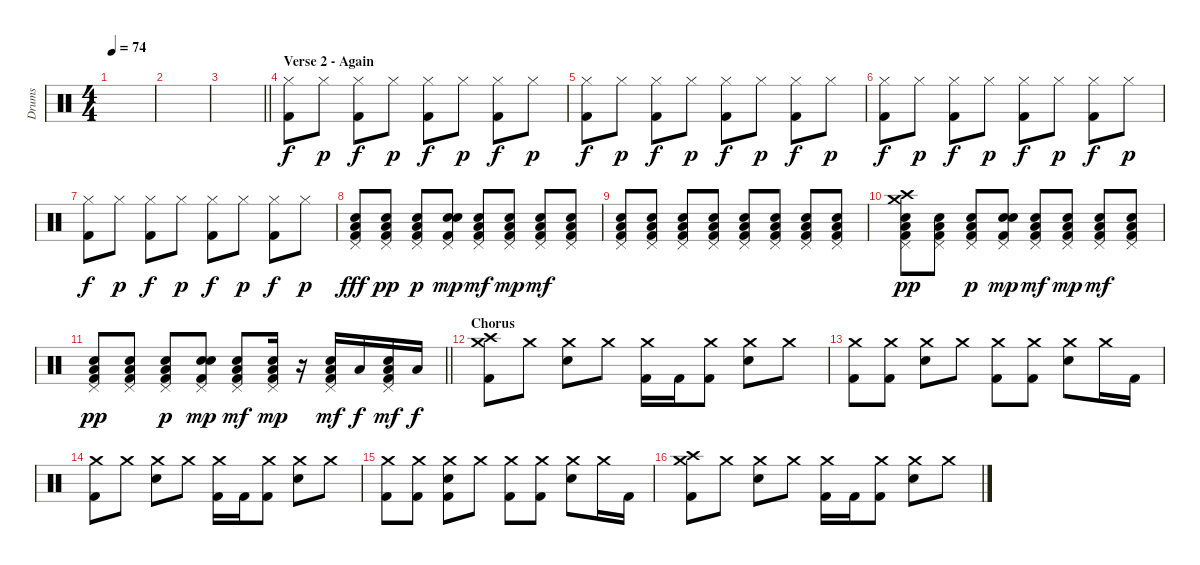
\track ("Drums" "Drums") {instrument percussion}
\staff {score}
\articulation defaults
\ts (4 4)
\tempo 74
\clef neutral
\ks c
|
|
\barLineRight lightlight
|
\section ("" "Verse 2 - Again")
("Hi-Hat (closed)" "Kick (hit) 2").8 "Hi-Hat (closed)".8{dy p} ("Hi-Hat (closed)" "Kick (hit) 2").8{dy f} "Hi-Hat (closed)".8{dy p} ("Hi-Hat (closed)" "Kick (hit) 2").8{dy f} "Hi-Hat (closed)".8{dy p} ("Hi-Hat (closed)" "Kick (hit) 2").8{dy f} "Hi-Hat (closed)".8{dy p} |
("Hi-Hat (closed)" "Kick (hit) 2").8{dy f} "Hi-Hat (closed)".8{dy p} ("Hi-Hat (closed)" "Kick (hit) 2").8{dy f} "Hi-Hat (closed)".8{dy p} ("Hi-Hat (closed)" "Kick (hit) 2").8{dy f} "Hi-Hat (closed)".8{dy p} ("Hi-Hat (closed)" "Kick (hit) 2").8{dy f} "Hi-Hat (closed)".8{dy p} |
("Hi-Hat (closed)" "Kick (hit) 2").8{dy f} "Hi-Hat (closed)".8{dy p} ("Hi-Hat (closed)" "Kick (hit) 2").8{dy f} "Hi-Hat (closed)".8{dy p} ("Hi-Hat (closed)" "Kick (hit) 2").8{dy f} "Hi-Hat (closed)".8{dy p} ("Hi-Hat (closed)" "Kick (hit) 2").8{dy f} "Hi-Hat (closed)".8{dy p} |
("Hi-Hat (closed)" "Kick (hit) 2").8{dy f} "Hi-Hat (closed)".8{dy p} ("Hi-Hat (closed)" "Kick (hit) 2").8{dy f} "Hi-Hat (closed)".8{dy p} ("Hi-Hat (closed)" "Kick (hit) 2").8{dy f} "Hi-Hat (closed)".8{dy p} ("Hi-Hat (closed)" "Kick (hit) 2").8{dy f} "Hi-Hat (closed)".8{dy p} |
("Pedal Hi-Hat (hit)" "Low Floor Tom (hit)" "Snare (hit) 2" "Kick (hit) 2").8{dy fff} ("Pedal Hi-Hat (hit)" "Low Floor Tom (hit)" "Snare (hit) 2" "Kick (hit) 2").8{dy pp} ("Pedal Hi-Hat (hit)" "Low Floor Tom (hit)" "Snare (hit) 2" "Kick (hit) 2").8{dy p} ("Pedal Hi-Hat (hit)" "Snare (hit)" "Snare (hit) 2" "Kick (hit) 2").8{dy mp} ("Pedal Hi-Hat (hit)" "Low Floor Tom (hit)" "Snare (hit) 2" "Kick (hit) 2").8{dy mf} ("Pedal Hi-Hat (hit)" "Low Floor Tom (hit)" "Snare (hit) 2" "Kick (hit) 2").8{dy mp} ("Pedal Hi-Hat (hit)" "Low Floor Tom (hit)" "Snare (hit) 2" "Kick (hit) 2").8{dy mf} ("Pedal Hi-Hat (hit)" "Low Floor Tom (hit)" "Snare (hit) 2" "Kick (hit) 2").8 |
("Pedal Hi-Hat (hit)" "Low Floor Tom (hit)" "Snare (hit) 2" "Kick (hit) 2").8 ("Pedal Hi-Hat (hit)" "Low Floor Tom (hit)" "Snare (hit) 2" "Kick (hit) 2").8 ("Pedal Hi-Hat (hit)" "Low Floor Tom (hit)" "Snare (hit) 2" "Kick (hit) 2").8 ("Pedal Hi-Hat (hit)" "Low Floor Tom (hit)" "Snare (hit) 2" "Kick (hit) 2").8 ("Pedal Hi-Hat (hit)" "Low Floor Tom (hit)" "Snare (hit) 2" "Kick (hit) 2").8 ("Pedal Hi-Hat (hit)" "Low Floor Tom (hit)" "Snare (hit) 2" "Kick (hit) 2").8 ("Pedal Hi-Hat (hit)" "Low Floor Tom (hit)" "Snare (hit) 2" "Kick (hit) 2").8 ("Pedal Hi-Hat (hit)" "Low Floor Tom (hit)" "Snare (hit) 2" "Kick (hit) 2").8 |
("Crash medium (hit)" "Crash high (hit)" "Pedal Hi-Hat (hit)" "Low Floor Tom (hit)" "Snare (hit) 2" "Kick (hit) 2").8{dy pp} ("Pedal Hi-Hat (hit)" "Low Floor Tom (hit)" "Snare (hit) 2" "Kick (hit) 2").8 ("Pedal Hi-Hat (hit)" "Low Floor Tom (hit)" "Snare (hit) 2" "Kick (hit) 2").8{dy p} ("Pedal Hi-Hat (hit)" "Snare (hit)" "Snare (hit) 2" "Kick (hit) 2").8{dy mp} ("Pedal Hi-Hat (hit)" "Low Floor Tom (hit)" "Snare (hit) 2" "Kick (hit) 2").8{dy mf} ("Pedal Hi-Hat (hit)" "Low Floor Tom (hit)" "Snare (hit) 2" "Kick (hit) 2").8{dy mp} ("Pedal Hi-Hat (hit)" "Low Floor Tom (hit)" "Snare (hit) 2" "Kick (hit) 2").8{dy mf} ("Pedal Hi-Hat (hit)" "Low Floor Tom (hit)" "Snare (hit) 2" "Kick (hit) 2").8 |
\barLineRight lightlight
("Pedal Hi-Hat (hit)" "Low Floor Tom (hit)" "Snare (hit) 2" "Kick (hit) 2").8{dy pp} ("Pedal Hi-Hat (hit)" "Low Floor Tom (hit)" "Snare (hit) 2" "Kick (hit) 2").8 ("Pedal Hi-Hat (hit)" "Low Floor Tom (hit)" "Snare (hit) 2" "Kick (hit) 2").8{dy p} ("Pedal Hi-Hat (hit)" "Snare (hit)" "Snare (hit) 2" "Kick (hit) 2").8{dy mp} ("Pedal Hi-Hat (hit)" "Low Floor Tom (hit)" "Snare (hit) 2" "Kick (hit) 2").8{dy mf} ("Pedal Hi-Hat (hit)" "Low Tom (hit)" "Snare (hit) 2" "Kick (hit) 2").16{dy mp} r.16 ("Pedal Hi-Hat (hit)" "Low Tom (hit)" "Snare (hit) 2" "Kick (hit) 2").16{dy mf} "Low Tom (hit)".16{dy f} ("Pedal Hi-Hat (hit)" "Low Tom (hit)" "Snare (hit) 2" "Kick (hit) 2").16{dy mf} "Low Tom (hit)".16{dy f} |
\section ("" "Chorus")
("Crash high (hit)" "Crash medium (hit)" "Kick (hit) 2").8 "Crash medium (hit)".8 ("Crash medium (hit)" "Snare (hit) 2").8 "Crash medium (hit)".8 ("Crash medium (hit)" "Kick (hit) 2").16 "Kick (hit) 2".16 ("Crash medium (hit)" "Kick (hit) 2").8 ("Crash medium (hit)" "Snare (hit) 2").8 "Crash medium (hit)".8 |
("Crash medium (hit)" "Kick (hit) 2").8 ("Crash medium (hit)" "Kick (hit) 2").8 ("Crash medium (hit)" "Snare (hit) 2").8 "Crash medium (hit)".8 ("Crash medium (hit)" "Kick (hit) 2").8 ("Crash medium (hit)" "Kick (hit) 2").8 ("Crash medium (hit)" "Snare (hit) 2").8 "Crash medium (hit)".16 "Kick (hit) 2".16 |
("Crash medium (hit)" "Kick (hit) 2").8 "Crash medium (hit)".8 ("Crash medium (hit)" "Snare (hit) 2").8 "Crash medium (hit)".8 ("Crash medium (hit)" "Kick (hit) 2").16 "Kick (hit) 2".16 ("Crash medium (hit)" "Kick (hit) 2").8 ("Crash medium (hit)" "Snare (hit) 2").8 "Crash medium (hit)".8 |
("Crash medium (hit)" "Kick (hit) 2").8 ("Crash medium (hit)" "Kick (hit) 2").8 ("Crash medium (hit)" "Snare (hit) 2" "Kick (hit) 2").8 "Crash medium (hit)".8 ("Crash medium (hit)" "Kick (hit) 2").8 ("Crash medium (hit)" "Kick (hit) 2").8 ("Crash medium (hit)" "Snare (hit) 2").8 "Crash medium (hit)".16 "Kick (hit) 2".16 |
("Crash high (hit)" "Crash medium (hit)" "Kick (hit) 2").8 "Crash medium (hit)".8 ("Crash medium (hit)" "Snare (hit) 2").8 "Crash medium (hit)".8 ("Crash medium (hit)" "Kick (hit) 2").16 "Kick (hit) 2".16 ("Crash medium (hit)" "Kick (hit) 2").8 ("Crash medium (hit)" "Snare (hit) 2").8 "Crash medium (hit)".8
